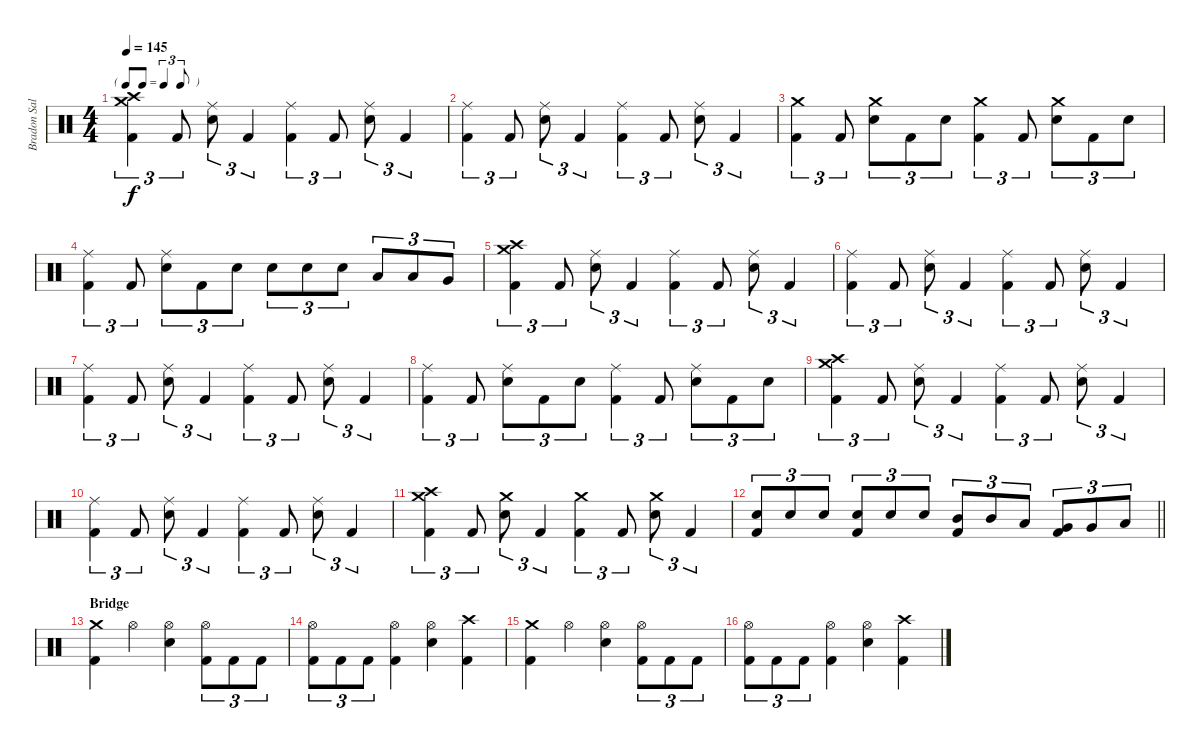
\track ("Bradon Saller" "Bradon Sal") {instrument percussion}
\staff {score}
\articulation defaults
\ts (4 4)
\tf triplet8th
\tempo 145
\clef neutral
\ks c
("Crash medium (hit)" "Crash high (hit)" "Kick (hit) 2").4{tu (3 2) dy f} "Kick (hit) 2".8{tu (3 2)} ("Ride (middle)" "Electric Snare (hit)").8{tu (3 2)} "Kick (hit) 2".4{tu (3 2)} ("Ride (middle)" "Kick (hit) 2").4{tu (3 2)} "Kick (hit) 2".8{tu (3 2)} ("Ride (middle)" "Electric Snare (hit)").8{tu (3 2)} "Kick (hit) 2".4{tu (3 2)} |
("Ride (middle)" "Kick (hit) 2").4{tu (3 2)} "Kick (hit) 2".8{tu (3 2)} ("Ride (middle)" "Electric Snare (hit)").8{tu (3 2)} "Kick (hit) 2".4{tu (3 2)} ("Ride (middle)" "Kick (hit) 2").4{tu (3 2)} "Kick (hit) 2".8{tu (3 2)} ("Ride (middle)" "Electric Snare (hit)").8{tu (3 2)} "Kick (hit) 2".4{tu (3 2)} |
("Crash medium (hit)" "Kick (hit) 2").4{tu (3 2)} "Kick (hit) 2".8{tu (3 2)} ("Crash medium (hit)" "Electric Snare (hit)").8{tu (3 2)} "Kick (hit) 2".8{tu (3 2)} "Electric Snare (hit)".8{tu (3 2)} ("Crash medium (hit)" "Kick (hit) 2").4{tu (3 2)} "Kick (hit) 2".8{tu (3 2)} ("Crash medium (hit)" "Electric Snare (hit)").8{tu (3 2)} "Kick (hit) 2".8{tu (3 2)} "Electric Snare (hit)".8{tu (3 2)} |
("Ride (middle)" "Kick (hit) 2").4{tu (3 2)} "Kick (hit) 2".8{tu (3 2)} ("Ride (middle)" "Electric Snare (hit)").8{tu (3 2)} "Kick (hit) 2".8{tu (3 2)} "Electric Snare (hit)".8{tu (3 2)} "Electric Snare (hit)".8{tu (3 2)} "Electric Snare (hit)".8{tu (3 2)} "Electric Snare (hit)".8{tu (3 2)} "Low Tom (hit)".8{tu (3 2)} "Low Tom (hit)".8{tu (3 2)} "Very Low Tom (hit)".8{tu (3 2)} |
("Crash medium (hit)" "Crash high (hit)" "Kick (hit) 2").4{tu (3 2)} "Kick (hit) 2".8{tu (3 2)} ("Ride (middle)" "Electric Snare (hit)").8{tu (3 2)} "Kick (hit) 2".4{tu (3 2)} ("Ride (middle)" "Kick (hit) 2").4{tu (3 2)} "Kick (hit) 2".8{tu (3 2)} ("Ride (middle)" "Electric Snare (hit)").8{tu (3 2)} "Kick (hit) 2".4{tu (3 2)} |
("Ride (middle)" "Kick (hit) 2").4{tu (3 2)} "Kick (hit) 2".8{tu (3 2)} ("Ride (middle)" "Electric Snare (hit)").8{tu (3 2)} "Kick (hit) 2".4{tu (3 2)} ("Ride (middle)" "Kick (hit) 2").4{tu (3 2)} "Kick (hit) 2".8{tu (3 2)} ("Ride (middle)" "Electric Snare (hit)").8{tu (3 2)} "Kick (hit) 2".4{tu (3 2)} |
("Ride (middle)" "Kick (hit) 2").4{tu (3 2)} "Kick (hit) 2".8{tu (3 2)} ("Ride (middle)" "Electric Snare (hit)").8{tu (3 2)} "Kick (hit) 2".4{tu (3 2)} ("Ride (middle)" "Kick (hit) 2").4{tu (3 2)} "Kick (hit) 2".8{tu (3 2)} ("Ride (middle)" "Electric Snare (hit)").8{tu (3 2)} "Kick (hit) 2".4{tu (3 2)} |
("Ride (middle)" "Kick (hit) 2").4{tu (3 2)} "Kick (hit) 2".8{tu (3 2)} ("Ride (middle)" "Electric Snare (hit)").8{tu (3 2)} "Kick (hit) 2".8{tu (3 2)} "Electric Snare (hit)".8{tu (3 2)} ("Ride (middle)" "Kick (hit) 2").4{tu (3 2)} "Kick (hit) 2".8{tu (3 2)} ("Ride (middle)" "Electric Snare (hit)").8{tu (3 2)} "Kick (hit) 2".8{tu (3 2)} "Electric Snare (hit)".8{tu (3 2)} |
("Crash medium (hit)" "Crash high (hit)" "Kick (hit) 2").4{tu (3 2)} "Kick (hit) 2".8{tu (3 2)} ("Ride (middle)" "Electric Snare (hit)").8{tu (3 2)} "Kick (hit) 2".4{tu (3 2)} ("Ride (middle)" "Kick (hit) 2").4{tu (3 2)} "Kick (hit) 2".8{tu (3 2)} ("Ride (middle)" "Electric Snare (hit)").8{tu (3 2)} "Kick (hit) 2".4{tu (3 2)} |
("Ride (middle)" "Kick (hit) 2").4{tu (3 2)} "Kick (hit) 2".8{tu (3 2)} ("Ride (middle)" "Electric Snare (hit)").8{tu (3 2)} "Kick (hit) 2".4{tu (3 2)} ("Ride (middle)" "Kick (hit) 2").4{tu (3 2)} "Kick (hit) 2".8{tu (3 2)} ("Ride (middle)" "Electric Snare (hit)").8{tu (3 2)} "Kick (hit) 2".4{tu (3 2)} |
("Crash medium (hit)" "Crash high (hit)" "Kick (hit) 2").4{tu (3 2)} "Kick (hit) 2".8{tu (3 2)} ("Crash medium (hit)" "Electric Snare (hit)").8{tu (3 2)} "Kick (hit) 2".4{tu (3 2)} ("Crash medium (hit)" "Kick (hit) 2").4{tu (3 2)} "Kick (hit) 2".8{tu (3 2)} ("Crash medium (hit)" "Electric Snare (hit)").8{tu (3 2)} "Kick (hit) 2".4{tu (3 2)} |
\barLineRight lightlight
("Electric Snare (hit)" "Kick (hit) 2").8{tu (3 2)} "Electric Snare (hit)".8{tu (3 2)} "Electric Snare (hit)".8{tu (3 2)} ("Electric Snare (hit)" "Kick (hit) 2").8{tu (3 2)} "Electric Snare (hit)".8{tu (3 2)} "Electric Snare (hit)".8{tu (3 2)} ("Mid Tom (hit)" "Kick (hit) 2").8{tu (3 2)} "Mid Tom (hit)".8{tu (3 2)} "Low Tom (hit)".8{tu (3 2)} ("Very Low Tom (hit)" "Kick (hit) 2").8{tu (3 2)} "Very Low Tom (hit)".8{tu (3 2)} "Low Floor Tom (hit)".8{tu (3 2)} |
\section ("" "Bridge")
("Crash medium (hit)" "Kick (hit) 2").4 "Hi-Hat (open)".4 ("Hi-Hat (open)" "Electric Snare (hit)").4 ("Hi-Hat (open)" "Kick (hit) 2").8{tu (3 2)} "Kick (hit) 2".8{tu (3 2)} "Kick (hit) 2".8{tu (3 2)} |
("Hi-Hat (open)" "Kick (hit) 2").8{tu (3 2)} "Kick (hit) 2".8{tu (3 2)} "Kick (hit) 2".8{tu (3 2)} ("Hi-Hat (open)" "Kick (hit) 2").4 ("Hi-Hat (open)" "Electric Snare (hit)").4 ("Crash high (hit)" "Kick (hit) 2").4 |
("Crash medium (hit)" "Kick (hit) 2").4 "Hi-Hat (open)".4 ("Hi-Hat (open)" "Electric Snare (hit)").4 ("Hi-Hat (open)" "Kick (hit) 2").8{tu (3 2)} "Kick (hit) 2".8{tu (3 2)} "Kick (hit) 2".8{tu (3 2)} |
("Hi-Hat (open)" "Kick (hit) 2").8{tu (3 2)} "Kick (hit) 2".8{tu (3 2)} "Kick (hit) 2".8{tu (3 2)} ("Hi-Hat (open)" "Kick (hit) 2").4 ("Hi-Hat (open)" "Electric Snare (hit)").4 ("Crash high (hit)" "Kick (hit) 2").4
